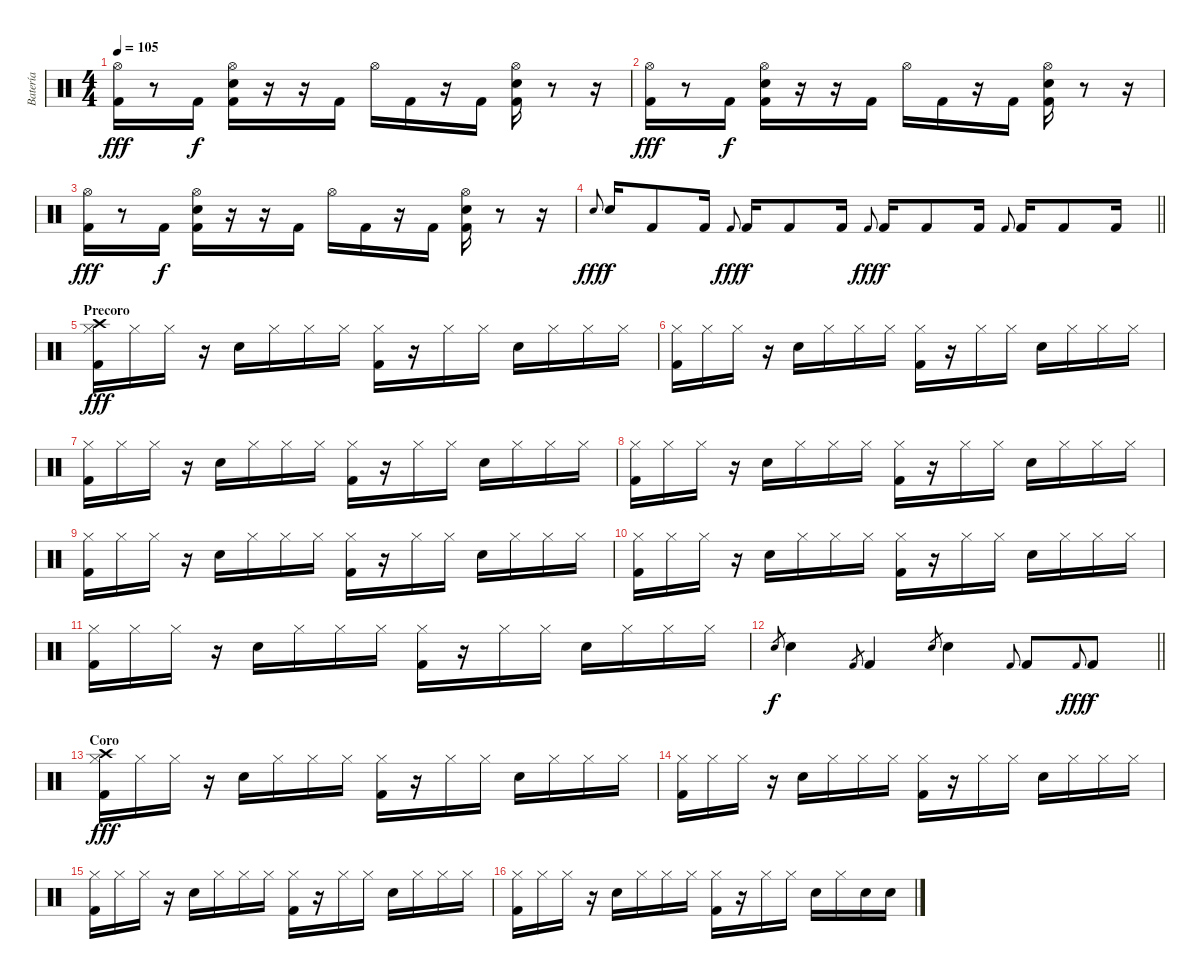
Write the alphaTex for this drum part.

\track ("Batería" "Batería") {instrument percussion}
\staff {score}
\articulation defaults
\ts (4 4)
\tempo 105
\clef neutral
\ks c
("Hi-Hat (open)" "Kick (hit) 2").16{dy fff} r.8 "Kick (hit) 2".16{dy f} ("Hi-Hat (open)" "Electric Snare (hit)" "Kick (hit) 2").16 r.16 r.16 "Kick (hit) 2".16 "Hi-Hat (open)".16 "Kick (hit) 2".16 r.16 "Kick (hit) 2".16 ("Hi-Hat (open)" "Electric Snare (hit)" "Kick (hit) 2").16 r.8 r.16 |
("Hi-Hat (open)" "Kick (hit) 2").16{dy fff} r.8 "Kick (hit) 2".16{dy f} ("Hi-Hat (open)" "Electric Snare (hit)" "Kick (hit) 2").16 r.16 r.16 "Kick (hit) 2".16 "Hi-Hat (open)".16 "Kick (hit) 2".16 r.16 "Kick (hit) 2".16 ("Hi-Hat (open)" "Electric Snare (hit)" "Kick (hit) 2").16 r.8 r.16 |
("Hi-Hat (open)" "Kick (hit) 2").16{dy fff} r.8 "Kick (hit) 2".16{dy f} ("Hi-Hat (open)" "Electric Snare (hit)" "Kick (hit) 2").16 r.16 r.16 "Kick (hit) 2".16 "Hi-Hat (open)".16 "Kick (hit) 2".16 r.16 "Kick (hit) 2".16 ("Hi-Hat (open)" "Electric Snare (hit)" "Kick (hit) 2").16 r.8 r.16 |
\barLineRight lightlight "Electric Snare (hit)".8{gr onbeat dy fff} "Electric Snare (hit)".16{dy f} "Kick (hit) 2".8 "Kick (hit) 2".16 "Kick (hit) 2".8{gr onbeat dy fff} "Kick (hit) 2".16{dy f} "Kick (hit) 2".8 "Kick (hit) 2".16 "Kick (hit) 2".8{gr onbeat dy fff} "Kick (hit) 2".16{dy f} "Kick (hit) 2".8 "Kick (hit) 2".16 "Kick (hit) 2"{h}.8{gr onbeat} "Kick (hit) 2".16 "Kick (hit) 2".8 "Kick (hit) 2".16
|
\section ("" "Precoro")
("Crash high (hit)" "Hi-Hat (closed)" "Kick (hit) 2").16{dy fff} "Hi-Hat (closed)".16 "Hi-Hat (closed)".16 r.16 "Electric Snare (hit)".16 "Hi-Hat (closed)".16 "Hi-Hat (closed)".16 "Hi-Hat (closed)".16 ("Hi-Hat (closed)" "Kick (hit) 2").16 r.16 "Hi-Hat (closed)".16 "Hi-Hat (closed)".16 "Electric Snare (hit)".16 "Hi-Hat (closed)".16 "Hi-Hat (closed)".16 "Hi-Hat (closed)".16 |
("Hi-Hat (closed)" "Kick (hit) 2").16 "Hi-Hat (closed)".16 "Hi-Hat (closed)".16 r.16 "Electric Snare (hit)".16 "Hi-Hat (closed)".16 "Hi-Hat (closed)".16 "Hi-Hat (closed)".16 ("Hi-Hat (closed)" "Kick (hit) 2").16 r.16 "Hi-Hat (closed)".16 "Hi-Hat (closed)".16 "Electric Snare (hit)".16 "Hi-Hat (closed)".16 "Hi-Hat (closed)".16 "Hi-Hat (closed)".16 |
("Hi-Hat (closed)" "Kick (hit) 2").16 "Hi-Hat (closed)".16 "Hi-Hat (closed)".16 r.16 "Electric Snare (hit)".16 "Hi-Hat (closed)".16 "Hi-Hat (closed)".16 "Hi-Hat (closed)".16 ("Hi-Hat (closed)" "Kick (hit) 2").16 r.16 "Hi-Hat (closed)".16 "Hi-Hat (closed)".16 "Electric Snare (hit)".16 "Hi-Hat (closed)".16 "Hi-Hat (closed)".16 "Hi-Hat (closed)".16 |
("Hi-Hat (closed)" "Kick (hit) 2").16 "Hi-Hat (closed)".16 "Hi-Hat (closed)".16 r.16 "Electric Snare (hit)".16 "Hi-Hat (closed)".16 "Hi-Hat (closed)".16 "Hi-Hat (closed)".16 ("Hi-Hat (closed)" "Kick (hit) 2").16 r.16 "Hi-Hat (closed)".16 "Hi-Hat (closed)".16 "Electric Snare (hit)".16 "Hi-Hat (closed)".16 "Hi-Hat (closed)".16 "Hi-Hat (closed)".16 |
("Hi-Hat (closed)" "Kick (hit) 2").16 "Hi-Hat (closed)".16 "Hi-Hat (closed)".16 r.16 "Electric Snare (hit)".16 "Hi-Hat (closed)".16 "Hi-Hat (closed)".16 "Hi-Hat (closed)".16 ("Hi-Hat (closed)" "Kick (hit) 2").16 r.16 "Hi-Hat (closed)".16 "Hi-Hat (closed)".16 "Electric Snare (hit)".16 "Hi-Hat (closed)".16 "Hi-Hat (closed)".16 "Hi-Hat (closed)".16 |
("Hi-Hat (closed)" "Kick (hit) 2").16 "Hi-Hat (closed)".16 "Hi-Hat (closed)".16 r.16 "Electric Snare (hit)".16 "Hi-Hat (closed)".16 "Hi-Hat (closed)".16 "Hi-Hat (closed)".16 ("Hi-Hat (closed)" "Kick (hit) 2").16 r.16 "Hi-Hat (closed)".16 "Hi-Hat (closed)".16 "Electric Snare (hit)".16 "Hi-Hat (closed)".16 "Hi-Hat (closed)".16 "Hi-Hat (closed)".16 |
("Hi-Hat (closed)" "Kick (hit) 2").16 "Hi-Hat (closed)".16 "Hi-Hat (closed)".16 r.16 "Electric Snare (hit)".16 "Hi-Hat (closed)".16 "Hi-Hat (closed)".16 "Hi-Hat (closed)".16 ("Hi-Hat (closed)" "Kick (hit) 2").16 r.16 "Hi-Hat (closed)".16 "Hi-Hat (closed)".16 "Electric Snare (hit)".16 "Hi-Hat (closed)".16 "Hi-Hat (closed)".16 "Hi-Hat (closed)".16 |
\barLineRight lightlight "Electric Snare (hit)".8{gr dy f} "Electric Snare (hit)".4 "Kick (hit) 2".8{gr} "Kick (hit) 2".4 "Electric Snare (hit)".8{gr} "Electric Snare (hit)".4 "Kick (hit) 2".8{gr onbeat} "Kick (hit) 2".8 "Kick (hit) 2".8{gr onbeat dy fff} "Kick (hit) 2".8{dy f}
|
\section ("" "Coro")
("Crash high (hit)" "Hi-Hat (closed)" "Kick (hit) 2").16{dy fff} "Hi-Hat (closed)".16 "Hi-Hat (closed)".16 r.16 "Electric Snare (hit)".16 "Hi-Hat (closed)".16 "Hi-Hat (closed)".16 "Hi-Hat (closed)".16 ("Hi-Hat (closed)" "Kick (hit) 2").16 r.16 "Hi-Hat (closed)".16 "Hi-Hat (closed)".16 "Electric Snare (hit)".16 "Hi-Hat (closed)".16 "Hi-Hat (closed)".16 "Hi-Hat (closed)".16 |
("Hi-Hat (closed)" "Kick (hit) 2").16 "Hi-Hat (closed)".16 "Hi-Hat (closed)".16 r.16 "Electric Snare (hit)".16 "Hi-Hat (closed)".16 "Hi-Hat (closed)".16 "Hi-Hat (closed)".16 ("Hi-Hat (closed)" "Kick (hit) 2").16 r.16 "Hi-Hat (closed)".16 "Hi-Hat (closed)".16 "Electric Snare (hit)".16 "Hi-Hat (closed)".16 "Hi-Hat (closed)".16 "Hi-Hat (closed)".16 |
("Hi-Hat (closed)" "Kick (hit) 2").16 "Hi-Hat (closed)".16 "Hi-Hat (closed)".16 r.16 "Electric Snare (hit)".16 "Hi-Hat (closed)".16 "Hi-Hat (closed)".16 "Hi-Hat (closed)".16 ("Hi-Hat (closed)" "Kick (hit) 2").16 r.16 "Hi-Hat (closed)".16 "Hi-Hat (closed)".16 "Electric Snare (hit)".16 "Hi-Hat (closed)".16 "Hi-Hat (closed)".16 "Hi-Hat (closed)".16 |
("Hi-Hat (closed)" "Kick (hit) 2").16 "Hi-Hat (closed)".16 "Hi-Hat (closed)".16 r.16 "Electric Snare (hit)".16 "Hi-Hat (closed)".16 "Hi-Hat (closed)".16 "Hi-Hat (closed)".16 ("Hi-Hat (closed)" "Kick (hit) 2").16 r.16 "Hi-Hat (closed)".16 "Hi-Hat (closed)".16 "Electric Snare (hit)".16 "Hi-Hat (closed)".16 "Electric Snare (hit)".16 "Electric Snare (hit)".16
